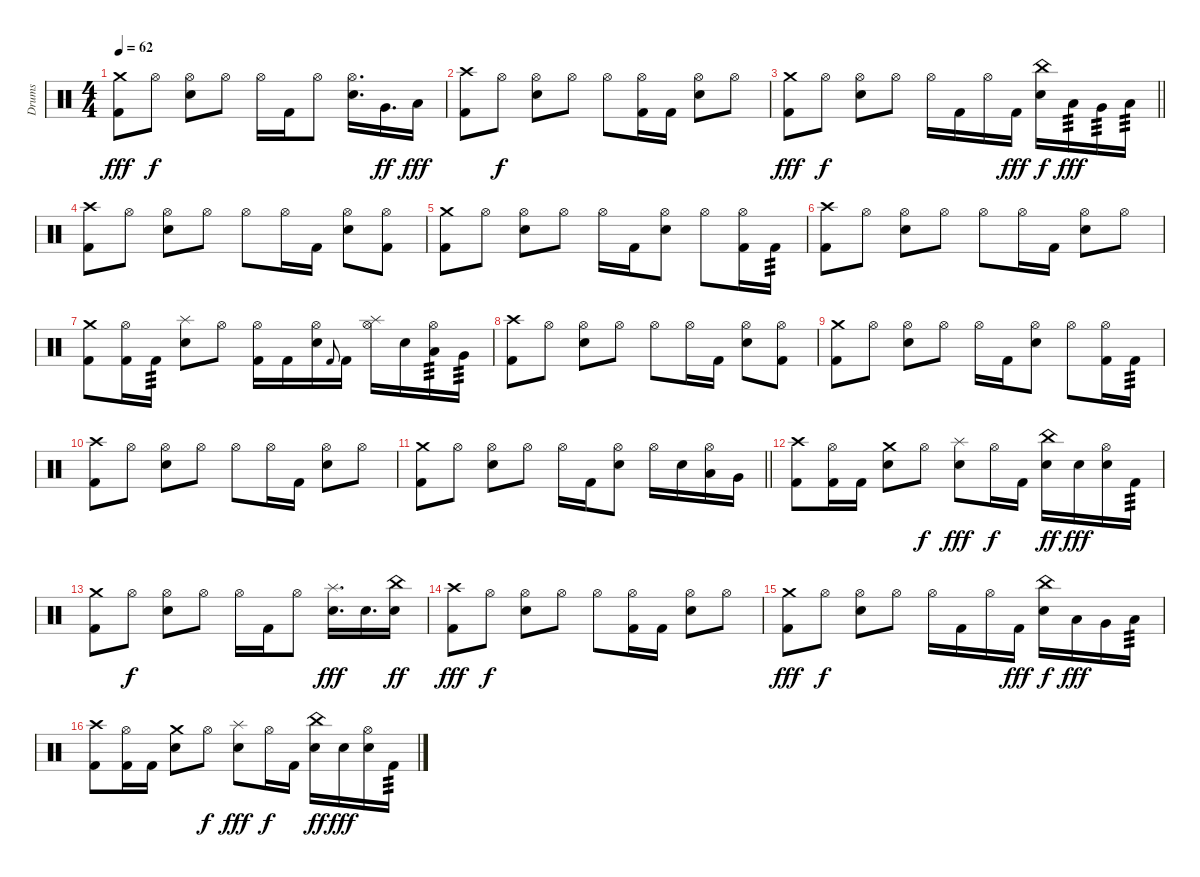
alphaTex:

\track ("Drums" "Drums") {instrument percussion}
\staff {score}
\articulation defaults
\ts (4 4)
\tempo 62
\clef neutral
\ks c
("Kick (hit) 2" "Crash medium (hit)").8{dy fff} "Hi-Hat (open)".8{dy f} ("Electric Snare (hit)" "Hi-Hat (open)").8 "Hi-Hat (open)".8 "Hi-Hat (open)".16 "Kick (hit) 2".16 "Hi-Hat (open)".8 ("Electric Snare (hit)" "Hi-Hat (open)").16{d} "Very Low Tom (hit)".16{d dy ff} "Low Floor Tom (hit)".16{dy fff} |
("Kick (hit) 2" "Crash high (hit)").8 "Hi-Hat (open)".8{dy f} ("Electric Snare (hit)" "Hi-Hat (open)").8 "Hi-Hat (open)".8 "Hi-Hat (open)".8 ("Kick (hit) 2" "Hi-Hat (open)").16 "Kick (hit) 2".16 ("Electric Snare (hit)" "Hi-Hat (open)").8 "Hi-Hat (open)".8 |
\barLineRight lightlight
("Kick (hit) 2" "Crash medium (hit)").8{dy fff} "Hi-Hat (open)".8{dy f} ("Electric Snare (hit)" "Hi-Hat (open)").8 "Hi-Hat (open)".8 "Hi-Hat (open)".16 "Kick (hit) 2".16 "Hi-Hat (open)".16 "Kick (hit) 2".16{dy fff} ("Electric Snare (hit)" "China (hit)").16{dy f} "Low Tom (hit)".16{tp 3 dy fff} "Very Low Tom (hit)".16{tp 3} "Low Floor Tom (hit)".16{tp 3} |
("Kick (hit) 2" "Crash high (hit)").8 "Hi-Hat (open)".8 ("Electric Snare (hit)" "Hi-Hat (open)").8 "Hi-Hat (open)".8 "Hi-Hat (open)".8 "Hi-Hat (open)".16 "Kick (hit) 2".16 ("Electric Snare (hit)" "Hi-Hat (open)").8 ("Kick (hit) 2" "Hi-Hat (open)").8 |
("Kick (hit) 2" "Crash medium (hit)").8 "Hi-Hat (open)".8 ("Electric Snare (hit)" "Hi-Hat (open)").8 "Hi-Hat (open)".8 "Hi-Hat (open)".16 "Kick (hit) 2".16 ("Electric Snare (hit)" "Hi-Hat (open)").8 "Hi-Hat (open)".8 ("Kick (hit) 2" "Hi-Hat (open)").16 "Kick (hit) 2".16{tp 3} |
("Kick (hit) 2" "Crash high (hit)").8 "Hi-Hat (open)".8 ("Electric Snare (hit)" "Hi-Hat (open)").8 "Hi-Hat (open)".8 "Hi-Hat (open)".8 "Hi-Hat (open)".16 "Kick (hit) 2".16 ("Electric Snare (hit)" "Hi-Hat (open)").8 "Hi-Hat (open)".8 |
("Kick (hit) 2" "Crash medium (hit)").8 ("Kick (hit) 2" "Hi-Hat (open)").16 "Kick (hit) 2".16{tp 3} ("Electric Snare (hit)" "Splash (hit)").8 "Hi-Hat (open)".8 ("Kick (hit) 2" "Hi-Hat (open)").16 "Kick (hit) 2".16 ("Electric Snare (hit)" "Hi-Hat (open)").16 "Kick (hit) 2".8{gr onbeat} "Kick (hit) 2".16 ("Hi-Hat (open)" "Splash (hit)").16 "Electric Snare (hit)".16 ("Low Tom (hit)" "Hi-Hat (open)").16{tp 3} "Very Low Tom (hit)".16{tp 3} |
("Kick (hit) 2" "Crash high (hit)").8 "Hi-Hat (open)".8 ("Electric Snare (hit)" "Hi-Hat (open)").8 "Hi-Hat (open)".8 "Hi-Hat (open)".8 "Hi-Hat (open)".16 "Kick (hit) 2".16 ("Electric Snare (hit)" "Hi-Hat (open)").8 ("Kick (hit) 2" "Hi-Hat (open)").8 |
("Kick (hit) 2" "Crash medium (hit)").8 "Hi-Hat (open)".8 ("Electric Snare (hit)" "Hi-Hat (open)").8 "Hi-Hat (open)".8 "Hi-Hat (open)".16 "Kick (hit) 2".16 ("Electric Snare (hit)" "Hi-Hat (open)").8 "Hi-Hat (open)".8 ("Kick (hit) 2" "Hi-Hat (open)").16 "Kick (hit) 2".16{tp 3} |
("Kick (hit) 2" "Crash high (hit)").8 "Hi-Hat (open)".8 ("Electric Snare (hit)" "Hi-Hat (open)").8 "Hi-Hat (open)".8 "Hi-Hat (open)".8 "Hi-Hat (open)".16 "Kick (hit) 2".16 ("Electric Snare (hit)" "Hi-Hat (open)").8 "Hi-Hat (open)".8 |
\barLineRight lightlight
("Kick (hit) 2" "Crash medium (hit)").8 "Hi-Hat (open)".8 ("Electric Snare (hit)" "Hi-Hat (open)").8 "Hi-Hat (open)".8 "Hi-Hat (open)".16 "Kick (hit) 2".16 ("Electric Snare (hit)" "Hi-Hat (open)").8 "Hi-Hat (open)".16 "Electric Snare (hit)".16 ("Low Tom (hit)" "Hi-Hat (open)").16 "Very Low Tom (hit)".16 |
("Kick (hit) 2" "Crash high (hit)").8 ("Kick (hit) 2" "Hi-Hat (open)").16 "Kick (hit) 2".16 ("Electric Snare (hit)" "Crash medium (hit)").8 "Hi-Hat (open)".8{dy f} ("Electric Snare (hit)" "Splash (hit)").8{dy fff} "Hi-Hat (open)".16{dy f} "Kick (hit) 2".16 ("Electric Snare (hit)" "China (hit)").16{dy ff} "Electric Snare (hit)".16{dy fff} ("Electric Snare (hit)" "Hi-Hat (open)").16 "Kick (hit) 2".16{tp 3} |
("Kick (hit) 2" "Crash medium (hit)").8 "Hi-Hat (open)".8{dy f} ("Electric Snare (hit)" "Hi-Hat (open)").8 "Hi-Hat (open)".8 "Hi-Hat (open)".16 "Kick (hit) 2".16 "Hi-Hat (open)".8 ("Electric Snare (hit)" "Splash (hit)").16{d dy fff} "Electric Snare (hit)".16{d} ("Electric Snare (hit)" "China (hit)").16{dy ff} |
("Kick (hit) 2" "Crash high (hit)").8{dy fff} "Hi-Hat (open)".8{dy f} ("Electric Snare (hit)" "Hi-Hat (open)").8 "Hi-Hat (open)".8 "Hi-Hat (open)".8 ("Kick (hit) 2" "Hi-Hat (open)").16 "Kick (hit) 2".16 ("Electric Snare (hit)" "Hi-Hat (open)").8 "Hi-Hat (open)".8 |
("Kick (hit) 2" "Crash medium (hit)").8{dy fff} "Hi-Hat (open)".8{dy f} ("Electric Snare (hit)" "Hi-Hat (open)").8 "Hi-Hat (open)".8 "Hi-Hat (open)".16 "Kick (hit) 2".16 "Hi-Hat (open)".16 "Kick (hit) 2".16{dy fff} ("Electric Snare (hit)" "China (hit)").16{dy f} "Low Tom (hit)".16{dy fff} "Very Low Tom (hit)".16 "Low Floor Tom (hit)".16{tp 3} |
("Kick (hit) 2" "Crash high (hit)").8 ("Kick (hit) 2" "Hi-Hat (open)").16 "Kick (hit) 2".16 ("Electric Snare (hit)" "Crash medium (hit)").8 "Hi-Hat (open)".8{dy f} ("Electric Snare (hit)" "Splash (hit)").8{dy fff} "Hi-Hat (open)".16{dy f} "Kick (hit) 2".16 ("Electric Snare (hit)" "China (hit)").16{dy ff} "Electric Snare (hit)".16{dy fff} ("Electric Snare (hit)" "Hi-Hat (open)").16 "Kick (hit) 2".16{tp 3}
